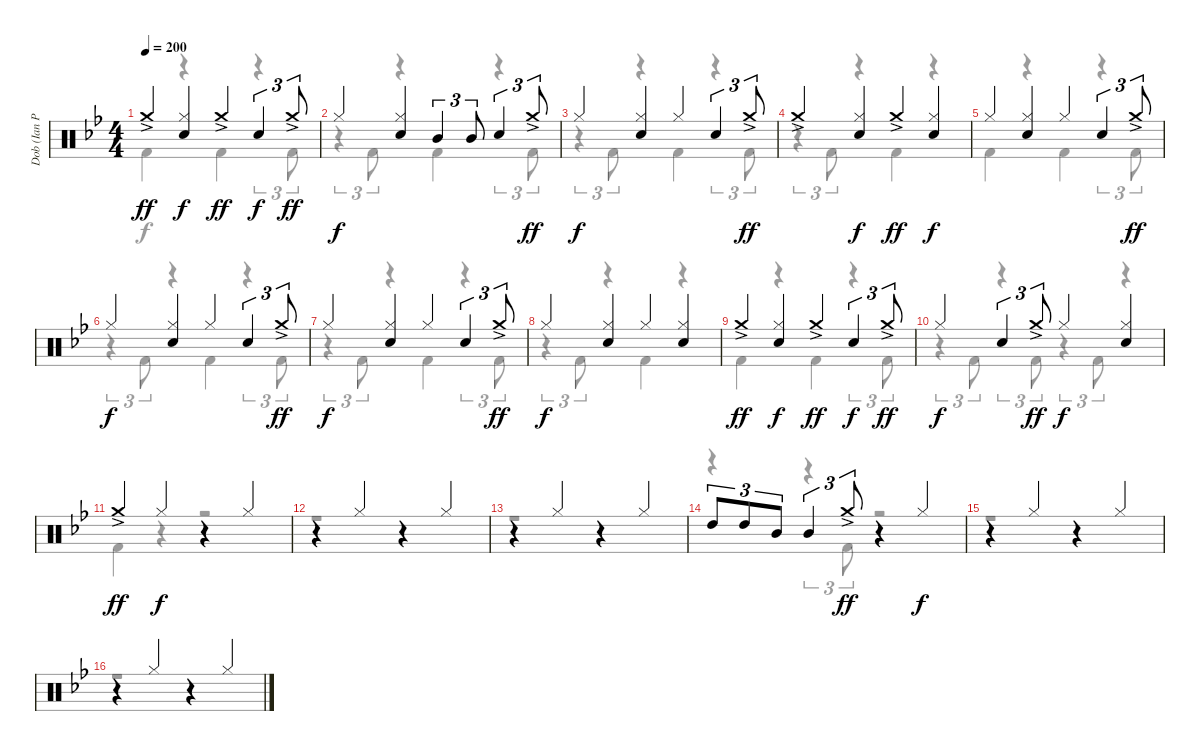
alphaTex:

\track ("Dob (Ian Paice)" "Dob (Ian P") {instrument percussion}
\staff {score}
\articulation defaults
\voice
\ts (4 4)
\tempo 200
\clef neutral
\ks bb "Crash medium (hit)"{ac}.4{dy ff}
("Hi-Hat (closed)" "Electric Snare (hit)").4{dy f} "Crash medium (hit)"{ac}.4{dy ff} "Electric Snare (hit)".4{tu (3 2) dy f} "Crash medium (hit)"{ac}.8{tu (3 2) dy ff} |
"Hi-Hat (closed)".4{dy f} ("Hi-Hat (closed)" "Electric Snare (hit)").4 "Mid Tom (hit)".4{tu (3 2)} "Mid Tom (hit)".8{tu (3 2)} "Electric Snare (hit)".4{tu (3 2)} "Crash medium (hit)"{ac}.8{tu (3 2) dy ff} |
"Hi-Hat (closed)".4{dy f} ("Hi-Hat (closed)" "Electric Snare (hit)").4 "Hi-Hat (closed)".4 "Electric Snare (hit)".4{tu (3 2)} "Crash medium (hit)"{ac}.8{tu (3 2) dy ff} |
"Crash medium (hit)"{ac}.4 ("Hi-Hat (closed)" "Electric Snare (hit)").4{dy f} "Crash medium (hit)"{ac}.4{dy ff} ("Hi-Hat (closed)" "Electric Snare (hit)").4{dy f} |
"Hi-Hat (closed)".4 ("Hi-Hat (closed)" "Electric Snare (hit)").4 "Hi-Hat (closed)".4 "Electric Snare (hit)".4{tu (3 2)} "Crash medium (hit)"{ac}.8{tu (3 2) dy ff} |
"Hi-Hat (closed)".4{dy f} ("Hi-Hat (closed)" "Electric Snare (hit)").4 "Hi-Hat (closed)".4 "Electric Snare (hit)".4{tu (3 2)} "Crash medium (hit)"{ac}.8{tu (3 2) dy ff} |
"Hi-Hat (closed)".4{dy f} ("Hi-Hat (closed)" "Electric Snare (hit)").4 "Hi-Hat (closed)".4 "Electric Snare (hit)".4{tu (3 2)} "Crash medium (hit)"{ac}.8{tu (3 2) dy ff} |
"Hi-Hat (closed)".4{dy f} ("Hi-Hat (closed)" "Electric Snare (hit)").4 "Hi-Hat (closed)".4 ("Hi-Hat (closed)" "Electric Snare (hit)").4 |
"Crash medium (hit)"{ac}.4{dy ff} ("Hi-Hat (closed)" "Electric Snare (hit)").4{dy f} "Crash medium (hit)"{ac}.4{dy ff} "Electric Snare (hit)".4{tu (3 2) dy f} "Crash medium (hit)"{ac}.8{tu (3 2) dy ff} |
"Hi-Hat (closed)".4{dy f} "Electric Snare (hit)".4{tu (3 2)} "Crash medium (hit)"{ac}.8{tu (3 2) dy ff} "Hi-Hat (closed)".4{dy f} ("Hi-Hat (closed)" "Electric Snare (hit)").4 |
"Crash medium (hit)"{ac}.4{dy ff} "Hi-Hat (closed)".4{dy f} r.4 "Hi-Hat (closed)".4 |
r.4 "Hi-Hat (closed)".4 r.4 "Hi-Hat (closed)".4 |
r.4 "Hi-Hat (closed)".4 r.4 "Hi-Hat (closed)".4 |
"High Tom (hit)".8{tu (3 2)} "High Tom (hit)".8{tu (3 2)} "Mid Tom (hit)".8{tu (3 2)} "Mid Tom (hit)".4{tu (3 2)} "Crash medium (hit)"{ac}.8{tu (3 2) dy ff} r.4 "Hi-Hat (closed)".4{dy f} |
r.4 "Hi-Hat (closed)".4 r.4 "Hi-Hat (closed)".4 |
r.4 "Hi-Hat (closed)".4 r.4 "Hi-Hat (closed)".4
\voice
\clef neutral
\ottava regular
\simile none
\ks bb "Kick (hit) 2".4{dy f}
r.4 "Kick (hit) 2".4 r.4{tu (3 2)} "Kick (hit) 2".8{tu (3 2)} |
r.4{tu (3 2)} "Kick (hit) 2".8{tu (3 2)} r.4 "Kick (hit) 2".4 r.4{tu (3 2)} "Kick (hit) 2".8{tu (3 2)} |
r.4{tu (3 2)} "Kick (hit) 2".8{tu (3 2)} r.4 "Kick (hit) 2".4 r.4{tu (3 2)} "Kick (hit) 2".8{tu (3 2)} |
r.4{tu (3 2)} "Kick (hit) 2".8{tu (3 2)} r.4 "Kick (hit) 2".4 r.4 |
"Kick (hit) 2".4 r.4 "Kick (hit) 2".4 r.4{tu (3 2)} "Kick (hit) 2".8{tu (3 2)} |
r.4{tu (3 2)} "Kick (hit) 2".8{tu (3 2)} r.4 "Kick (hit) 2".4 r.4{tu (3 2)} "Kick (hit) 2".8{tu (3 2)} |
r.4{tu (3 2)} "Kick (hit) 2".8{tu (3 2)} r.4 "Kick (hit) 2".4 r.4{tu (3 2)} "Kick (hit) 2".8{tu (3 2)} |
r.4{tu (3 2)} "Kick (hit) 2".8{tu (3 2)} r.4 "Kick (hit) 2".4 r.4 |
"Kick (hit) 2".4 r.4 "Kick (hit) 2".4 r.4{tu (3 2)} "Kick (hit) 2".8{tu (3 2)} |
r.4{tu (3 2)} "Kick (hit) 2".8{tu (3 2)} r.4{tu (3 2)} "Kick (hit) 2".8{tu (3 2)} r.4{tu (3 2)} "Kick (hit) 2".8{tu (3 2)} r.4 |
"Kick (hit) 2".4 r.4 r.2 |
r.1 |
r.1 |
r.4 r.4{tu (3 2)} "Kick (hit) 2".8{tu (3 2)} r.2 |
r.1 |
r.1
